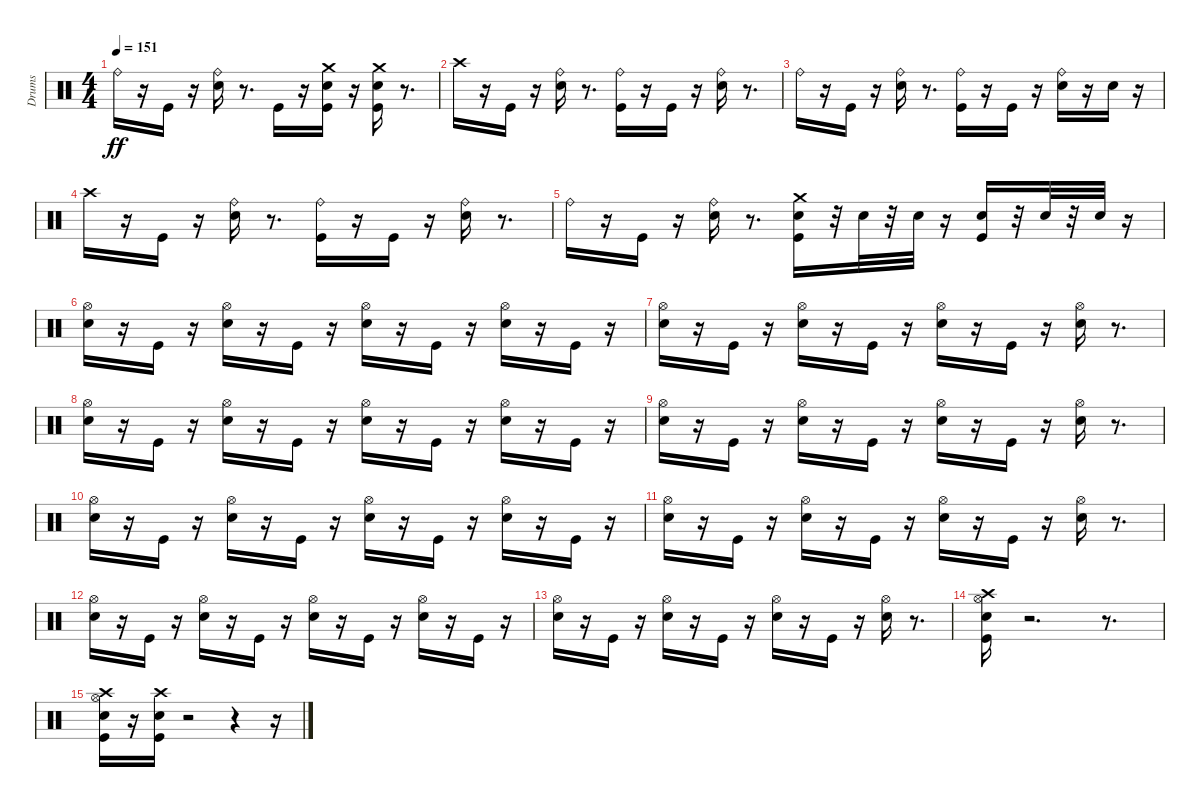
\track ("Drums" "Drums") {instrument percussion}
\staff {score}
\articulation defaults
\ts (4 4)
\tempo 151
\clef neutral
\ks c "Ride (bell)".16{dy ff}
r.16 "Kick (hit)".16 r.16 ("Snare (hit) 2" "Ride (bell)").16 r.8{d} "Kick (hit)".16 r.16 ("Kick (hit)" "Snare (hit) 2" "Crash medium (hit)").16 r.16 ("Kick (hit)" "Snare (hit) 2" "Crash medium (hit)").16 r.8{d} |
"Crash high (hit)".16 r.16 "Kick (hit)".16 r.16 ("Snare (hit) 2" "Ride (bell)").16 r.8{d} ("Kick (hit)" "Ride (bell)").16 r.16 "Kick (hit)".16 r.16 ("Snare (hit) 2" "Ride (bell)").16 r.8{d} |
"Ride (bell)".16 r.16 "Kick (hit)".16 r.16 ("Snare (hit) 2" "Ride (bell)").16 r.8{d} ("Kick (hit)" "Ride (bell)").16 r.16 "Kick (hit)".16 r.16 ("Snare (hit) 2" "Ride (bell)").16 r.16 "Snare (hit) 2".16 r.16 |
"Crash high (hit)".16 r.16 "Kick (hit)".16 r.16 ("Snare (hit) 2" "Ride (bell)").16 r.8{d} ("Kick (hit)" "Ride (bell)").16 r.16 "Kick (hit)".16 r.16 ("Snare (hit) 2" "Ride (bell)").16 r.8{d} |
"Ride (bell)".16 r.16 "Kick (hit)".16 r.16 ("Snare (hit) 2" "Ride (bell)").16 r.8{d} ("Kick (hit)" "Snare (hit) 2" "Crash medium (hit)").16 r.32 "Snare (hit) 2".32 r.32 "Snare (hit) 2".32 r.16 ("Kick (hit)" "Snare (hit) 2").16 r.32 "Snare (hit) 2".32 r.32 "Snare (hit) 2".32 r.16 |
("Snare (hit) 2" "Hi-Hat (open)").16 r.16 "Kick (hit)".16 r.16 ("Snare (hit) 2" "Hi-Hat (open)").16 r.16 "Kick (hit)".16 r.16 ("Snare (hit) 2" "Hi-Hat (open)").16 r.16 "Kick (hit)".16 r.16 ("Snare (hit) 2" "Hi-Hat (open)").16 r.16 "Kick (hit)".16 r.16 |
("Snare (hit) 2" "Hi-Hat (open)").16 r.16 "Kick (hit)".16 r.16 ("Snare (hit) 2" "Hi-Hat (open)").16 r.16 "Kick (hit)".16 r.16 ("Snare (hit) 2" "Hi-Hat (open)").16 r.16 "Kick (hit)".16 r.16 ("Snare (hit) 2" "Hi-Hat (open)").16 r.8{d} |
("Snare (hit) 2" "Hi-Hat (open)").16 r.16 "Kick (hit)".16 r.16 ("Snare (hit) 2" "Hi-Hat (open)").16 r.16 "Kick (hit)".16 r.16 ("Snare (hit) 2" "Hi-Hat (open)").16 r.16 "Kick (hit)".16 r.16 ("Snare (hit) 2" "Hi-Hat (open)").16 r.16 "Kick (hit)".16 r.16 |
("Snare (hit) 2" "Hi-Hat (open)").16 r.16 "Kick (hit)".16 r.16 ("Snare (hit) 2" "Hi-Hat (open)").16 r.16 "Kick (hit)".16 r.16 ("Snare (hit) 2" "Hi-Hat (open)").16 r.16 "Kick (hit)".16 r.16 ("Snare (hit) 2" "Hi-Hat (open)").16 r.8{d} |
("Snare (hit) 2" "Hi-Hat (open)").16 r.16 "Kick (hit)".16 r.16 ("Snare (hit) 2" "Hi-Hat (open)").16 r.16 "Kick (hit)".16 r.16 ("Snare (hit) 2" "Hi-Hat (open)").16 r.16 "Kick (hit)".16 r.16 ("Snare (hit) 2" "Hi-Hat (open)").16 r.16 "Kick (hit)".16 r.16 |
("Snare (hit) 2" "Hi-Hat (open)").16 r.16 "Kick (hit)".16 r.16 ("Snare (hit) 2" "Hi-Hat (open)").16 r.16 "Kick (hit)".16 r.16 ("Snare (hit) 2" "Hi-Hat (open)").16 r.16 "Kick (hit)".16 r.16 ("Snare (hit) 2" "Hi-Hat (open)").16 r.8{d} |
("Snare (hit) 2" "Hi-Hat (open)").16 r.16 "Kick (hit)".16 r.16 ("Snare (hit) 2" "Hi-Hat (open)").16 r.16 "Kick (hit)".16 r.16 ("Snare (hit) 2" "Hi-Hat (open)").16 r.16 "Kick (hit)".16 r.16 ("Snare (hit) 2" "Hi-Hat (open)").16 r.16 "Kick (hit)".16 r.16 |
("Snare (hit) 2" "Hi-Hat (open)").16 r.16 "Kick (hit)".16 r.16 ("Snare (hit) 2" "Hi-Hat (open)").16 r.16 "Kick (hit)".16 r.16 ("Snare (hit) 2" "Hi-Hat (open)").16 r.16 "Kick (hit)".16 r.16 ("Snare (hit) 2" "Hi-Hat (open)").16 r.8{d} |
("Kick (hit)" "Snare (hit) 2" "Hi-Hat (open)" "Crash high (hit)").16 r.2{d} r.8{d} |
("Kick (hit)" "Snare (hit) 2" "Hi-Hat (open)" "Crash high (hit)").16 r.16 ("Kick (hit)" "Snare (hit) 2" "Crash high (hit)").16 r.2 r.4 r.16
